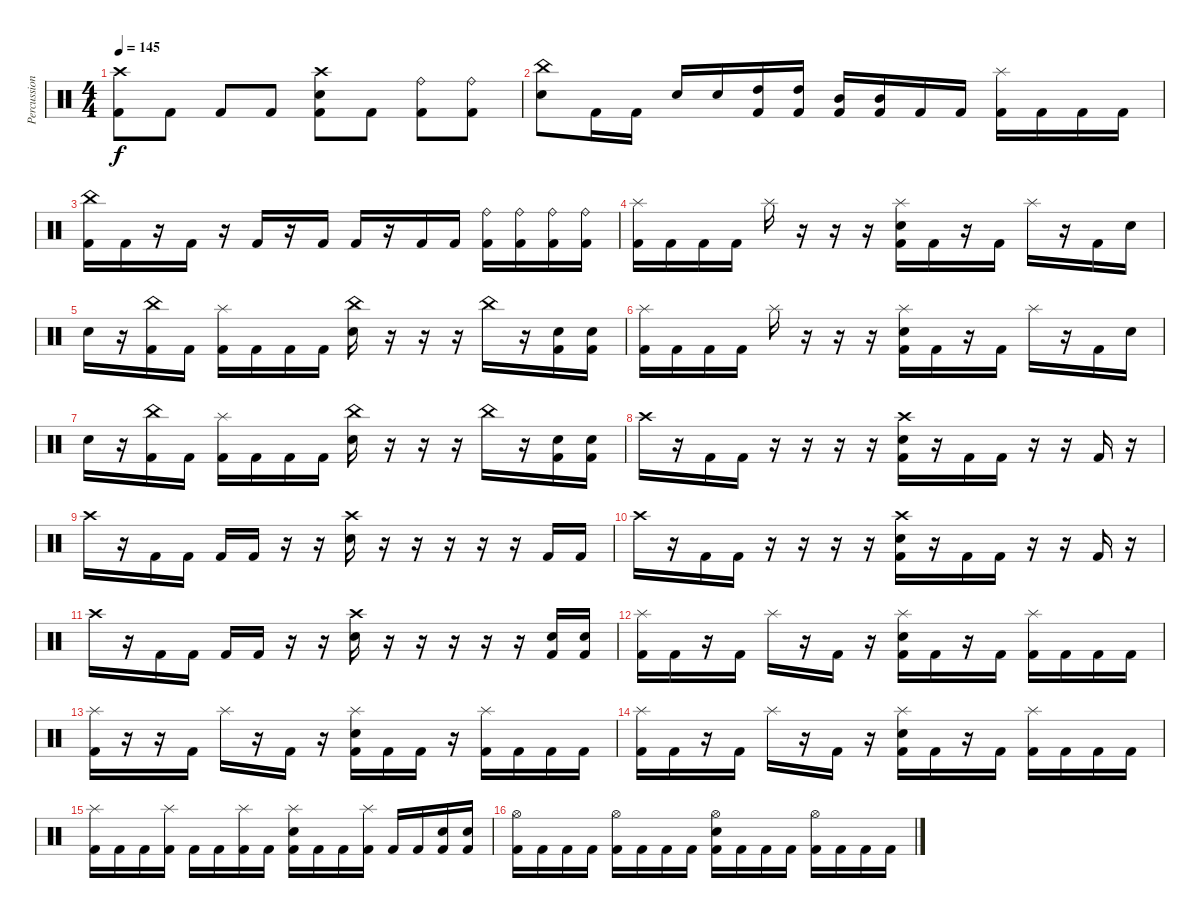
\track ("Percussion" "Percussion") {instrument percussion}
\staff {score}
\articulation defaults
\ts (4 4)
\tempo 145
\clef neutral
\ks c
("Crash high (hit)" "Kick (hit) 2").8{dy f} "Kick (hit) 2".8 "Kick (hit) 2".8 "Kick (hit) 2".8 ("Crash high (hit)" "Snare (hit) 2" "Kick (hit) 2").8 "Kick (hit) 2".8 ("Ride (bell)" "Kick (hit) 2").8 ("Ride (bell)" "Kick (hit) 2").8 |
("China (hit)" "Snare (hit) 2").8 "Kick (hit) 2".16 "Kick (hit) 2".16 "Snare (hit) 2".16 "Snare (hit) 2".16 ("High Tom (hit)" "Kick (hit) 2").16 ("High Tom (hit)" "Kick (hit) 2").16 ("Mid Tom (hit)" "Kick (hit) 2").16 ("Mid Tom (hit)" "Kick (hit) 2").16 "Kick (hit) 2".16 "Kick (hit) 2".16 ("Splash (hit)" "Kick (hit) 2").16 "Kick (hit) 2".16 "Kick (hit) 2".16 "Kick (hit) 2".16 |
("China (hit)" "Kick (hit) 2").16 "Kick (hit) 2".16 r.16 "Kick (hit) 2".16 r.16 "Kick (hit) 2".16 r.16 "Kick (hit) 2".16 "Kick (hit) 2".16 r.16 "Kick (hit) 2".16 "Kick (hit) 2".16 ("Ride (bell)" "Kick (hit) 2").16 ("Ride (bell)" "Kick (hit) 2").16 ("Ride (bell)" "Kick (hit) 2").16 ("Ride (bell)" "Kick (hit) 2").16 |
("Splash (hit)" "Kick (hit) 2").16 "Kick (hit) 2".16 "Kick (hit) 2".16 "Kick (hit) 2".16 "Splash (hit)".16 r.16 r.16 r.16 ("Splash (hit)" "Snare (hit) 2" "Kick (hit) 2").16 "Kick (hit) 2".16 r.16 "Kick (hit) 2".16 "Splash (hit)".16 r.16 "Kick (hit) 2".16 "Snare (hit) 2".16 |
"Snare (hit) 2".16 r.16 ("China (hit)" "Kick (hit) 2").16 "Kick (hit) 2".16 ("Splash (hit)" "Kick (hit) 2").16 "Kick (hit) 2".16 "Kick (hit) 2".16 "Kick (hit) 2".16 ("China (hit)" "Snare (hit) 2").16 r.16 r.16 r.16 "China (hit)".16 r.16 ("Snare (hit) 2" "Kick (hit) 2").16 ("Snare (hit) 2" "Kick (hit) 2").16 |
("Splash (hit)" "Kick (hit) 2").16 "Kick (hit) 2".16 "Kick (hit) 2".16 "Kick (hit) 2".16 "Splash (hit)".16 r.16 r.16 r.16 ("Splash (hit)" "Snare (hit) 2" "Kick (hit) 2").16 "Kick (hit) 2".16 r.16 "Kick (hit) 2".16 "Splash (hit)".16 r.16 "Kick (hit) 2".16 "Snare (hit) 2".16 |
"Snare (hit) 2".16 r.16 ("China (hit)" "Kick (hit) 2").16 "Kick (hit) 2".16 ("Splash (hit)" "Kick (hit) 2").16 "Kick (hit) 2".16 "Kick (hit) 2".16 "Kick (hit) 2".16 ("China (hit)" "Snare (hit) 2").16 r.16 r.16 r.16 "China (hit)".16 r.16 ("Snare (hit) 2" "Kick (hit) 2").16 ("Snare (hit) 2" "Kick (hit) 2").16 |
"Crash high (hit)".16 r.16 "Kick (hit) 2".16 "Kick (hit) 2".16 r.16 r.16 r.16 r.16 ("Crash high (hit)" "Snare (hit) 2" "Kick (hit) 2").16 r.16 "Kick (hit) 2".16 "Kick (hit) 2".16 r.16 r.16 "Kick (hit) 2".16 r.16 |
"Crash high (hit)".16 r.16 "Kick (hit) 2".16 "Kick (hit) 2".16 "Kick (hit) 2".16 "Kick (hit) 2".16 r.16 r.16 ("Crash high (hit)" "Snare (hit) 2").16 r.16 r.16 r.16 r.16 r.16 "Kick (hit) 2".16 "Kick (hit) 2".16 |
"Crash high (hit)".16 r.16 "Kick (hit) 2".16 "Kick (hit) 2".16 r.16 r.16 r.16 r.16 ("Crash high (hit)" "Snare (hit) 2" "Kick (hit) 2").16 r.16 "Kick (hit) 2".16 "Kick (hit) 2".16 r.16 r.16 "Kick (hit) 2".16 r.16 |
"Crash high (hit)".16 r.16 "Kick (hit) 2".16 "Kick (hit) 2".16 "Kick (hit) 2".16 "Kick (hit) 2".16 r.16 r.16 ("Crash high (hit)" "Snare (hit) 2").16 r.16 r.16 r.16 r.16 r.16 ("Snare (hit) 2" "Kick (hit) 2").16 ("Snare (hit) 2" "Kick (hit) 2").16 |
("Splash (hit)" "Kick (hit) 2").16 "Kick (hit) 2".16 r.16 "Kick (hit) 2".16 "Splash (hit)".16 r.16 "Kick (hit) 2".16 r.16 ("Splash (hit)" "Snare (hit) 2" "Kick (hit) 2").16 "Kick (hit) 2".16 r.16 "Kick (hit) 2".16 ("Splash (hit)" "Kick (hit) 2").16 "Kick (hit) 2".16 "Kick (hit) 2".16 "Kick (hit) 2".16 |
("Splash (hit)" "Kick (hit) 2").16 r.16 r.16 "Kick (hit) 2".16 "Splash (hit)".16 r.16 "Kick (hit) 2".16 r.16 ("Splash (hit)" "Snare (hit) 2" "Kick (hit) 2").16 "Kick (hit) 2".16 "Kick (hit) 2".16 r.16 ("Splash (hit)" "Kick (hit) 2").16 "Kick (hit) 2".16 "Kick (hit) 2".16 "Kick (hit) 2".16 |
("Splash (hit)" "Kick (hit) 2").16 "Kick (hit) 2".16 r.16 "Kick (hit) 2".16 "Splash (hit)".16 r.16 "Kick (hit) 2".16 r.16 ("Splash (hit)" "Snare (hit) 2" "Kick (hit) 2").16 "Kick (hit) 2".16 r.16 "Kick (hit) 2".16 ("Splash (hit)" "Kick (hit) 2").16 "Kick (hit) 2".16 "Kick (hit) 2".16 "Kick (hit) 2".16 |
("Splash (hit)" "Kick (hit) 2").16 "Kick (hit) 2".16 "Kick (hit) 2".16 ("Splash (hit)" "Kick (hit) 2").16 "Kick (hit) 2".16 "Kick (hit) 2".16 ("Splash (hit)" "Kick (hit) 2").16 "Kick (hit) 2".16 ("Splash (hit)" "Snare (hit) 2" "Kick (hit) 2").16 "Kick (hit) 2".16 "Kick (hit) 2".16 ("Splash (hit)" "Kick (hit) 2").16 "Kick (hit) 2".16 "Kick (hit) 2".16 ("Snare (hit) 2" "Kick (hit) 2").16 ("Snare (hit) 2" "Kick (hit) 2").16 |
("Hi-Hat (open)" "Kick (hit) 2").16 "Kick (hit) 2".16 "Kick (hit) 2".16 "Kick (hit) 2".16 ("Hi-Hat (open)" "Kick (hit) 2").16 "Kick (hit) 2".16 "Kick (hit) 2".16 "Kick (hit) 2".16 ("Hi-Hat (open)" "Snare (hit) 2" "Kick (hit) 2").16 "Kick (hit) 2".16 "Kick (hit) 2".16 "Kick (hit) 2".16 ("Hi-Hat (open)" "Kick (hit) 2").16 "Kick (hit) 2".16 "Kick (hit) 2".16 "Kick (hit) 2".16
